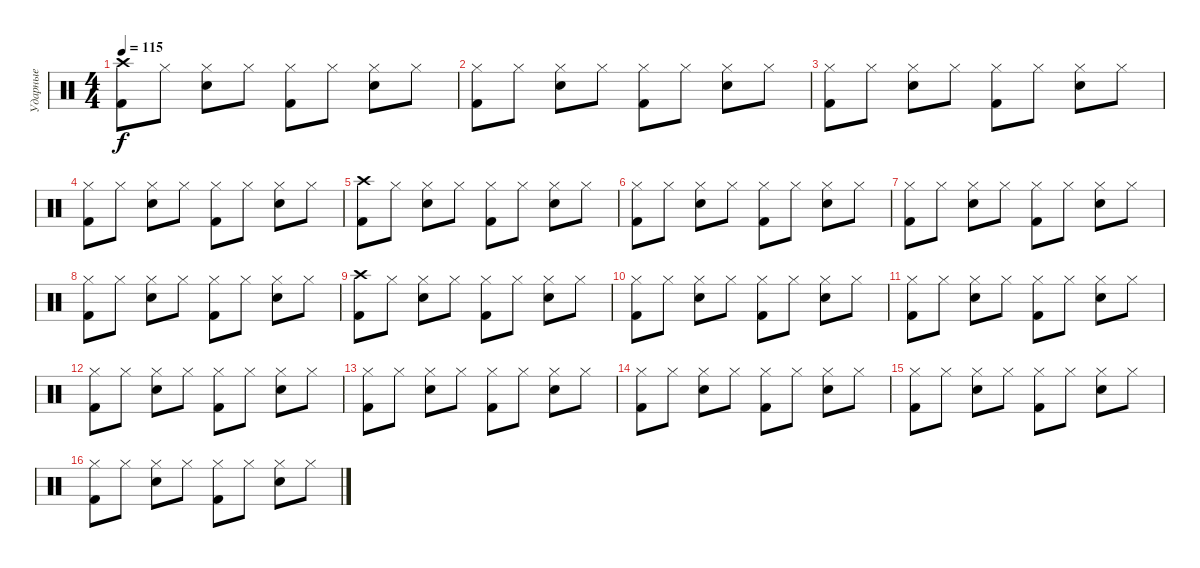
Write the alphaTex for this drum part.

\track ("Ударные" "Ударные") {instrument percussion}
\staff {score}
\articulation defaults
\ts (4 4)
\tempo 115
\clef neutral
\ks c
("Crash high (hit)" "Kick (hit) 2").8{dy f} "Hi-Hat (closed)".8 ("Hi-Hat (closed)" "Snare (hit) 2").8 "Hi-Hat (closed)".8 ("Hi-Hat (closed)" "Kick (hit) 2").8 "Hi-Hat (closed)".8 ("Hi-Hat (closed)" "Snare (hit) 2").8 "Hi-Hat (closed)".8 |
("Hi-Hat (closed)" "Kick (hit) 2").8 "Hi-Hat (closed)".8 ("Hi-Hat (closed)" "Snare (hit) 2").8 "Hi-Hat (closed)".8 ("Hi-Hat (closed)" "Kick (hit) 2").8 "Hi-Hat (closed)".8 ("Hi-Hat (closed)" "Snare (hit) 2").8 "Hi-Hat (closed)".8 |
("Hi-Hat (closed)" "Kick (hit) 2").8 "Hi-Hat (closed)".8 ("Hi-Hat (closed)" "Snare (hit) 2").8 "Hi-Hat (closed)".8 ("Hi-Hat (closed)" "Kick (hit) 2").8 "Hi-Hat (closed)".8 ("Hi-Hat (closed)" "Snare (hit) 2").8 "Hi-Hat (closed)".8 |
("Hi-Hat (closed)" "Kick (hit) 2").8 "Hi-Hat (closed)".8 ("Hi-Hat (closed)" "Snare (hit) 2").8 "Hi-Hat (closed)".8 ("Hi-Hat (closed)" "Kick (hit) 2").8 "Hi-Hat (closed)".8 ("Hi-Hat (closed)" "Snare (hit) 2").8 "Hi-Hat (closed)".8 |
("Crash high (hit)" "Kick (hit) 2").8 "Hi-Hat (closed)".8 ("Hi-Hat (closed)" "Snare (hit) 2").8 "Hi-Hat (closed)".8 ("Hi-Hat (closed)" "Kick (hit) 2").8 "Hi-Hat (closed)".8 ("Hi-Hat (closed)" "Snare (hit) 2").8 "Hi-Hat (closed)".8 |
("Hi-Hat (closed)" "Kick (hit) 2").8 "Hi-Hat (closed)".8 ("Hi-Hat (closed)" "Snare (hit) 2").8 "Hi-Hat (closed)".8 ("Hi-Hat (closed)" "Kick (hit) 2").8 "Hi-Hat (closed)".8 ("Hi-Hat (closed)" "Snare (hit) 2").8 "Hi-Hat (closed)".8 |
("Hi-Hat (closed)" "Kick (hit) 2").8 "Hi-Hat (closed)".8 ("Hi-Hat (closed)" "Snare (hit) 2").8 "Hi-Hat (closed)".8 ("Hi-Hat (closed)" "Kick (hit) 2").8 "Hi-Hat (closed)".8 ("Hi-Hat (closed)" "Snare (hit) 2").8 "Hi-Hat (closed)".8 |
("Hi-Hat (closed)" "Kick (hit) 2").8 "Hi-Hat (closed)".8 ("Hi-Hat (closed)" "Snare (hit) 2").8 "Hi-Hat (closed)".8 ("Hi-Hat (closed)" "Kick (hit) 2").8 "Hi-Hat (closed)".8 ("Hi-Hat (closed)" "Snare (hit) 2").8 "Hi-Hat (closed)".8 |
("Crash high (hit)" "Kick (hit) 2").8 "Hi-Hat (closed)".8 ("Hi-Hat (closed)" "Snare (hit) 2").8 "Hi-Hat (closed)".8 ("Hi-Hat (closed)" "Kick (hit) 2").8 "Hi-Hat (closed)".8 ("Hi-Hat (closed)" "Snare (hit) 2").8 "Hi-Hat (closed)".8 |
("Hi-Hat (closed)" "Kick (hit) 2").8 "Hi-Hat (closed)".8 ("Hi-Hat (closed)" "Snare (hit) 2").8 "Hi-Hat (closed)".8 ("Hi-Hat (closed)" "Kick (hit) 2").8 "Hi-Hat (closed)".8 ("Hi-Hat (closed)" "Snare (hit) 2").8 "Hi-Hat (closed)".8 |
("Hi-Hat (closed)" "Kick (hit) 2").8 "Hi-Hat (closed)".8 ("Hi-Hat (closed)" "Snare (hit) 2").8 "Hi-Hat (closed)".8 ("Hi-Hat (closed)" "Kick (hit) 2").8 "Hi-Hat (closed)".8 ("Hi-Hat (closed)" "Snare (hit) 2").8 "Hi-Hat (closed)".8 |
("Hi-Hat (closed)" "Kick (hit) 2").8 "Hi-Hat (closed)".8 ("Hi-Hat (closed)" "Snare (hit) 2").8 "Hi-Hat (closed)".8 ("Hi-Hat (closed)" "Kick (hit) 2").8 "Hi-Hat (closed)".8 ("Hi-Hat (closed)" "Snare (hit) 2").8 "Hi-Hat (closed)".8 |
("Hi-Hat (closed)" "Kick (hit) 2").8 "Hi-Hat (closed)".8 ("Hi-Hat (closed)" "Snare (hit) 2").8 "Hi-Hat (closed)".8 ("Hi-Hat (closed)" "Kick (hit) 2").8 "Hi-Hat (closed)".8 ("Hi-Hat (closed)" "Snare (hit) 2").8 "Hi-Hat (closed)".8 |
("Hi-Hat (closed)" "Kick (hit) 2").8 "Hi-Hat (closed)".8 ("Hi-Hat (closed)" "Snare (hit) 2").8 "Hi-Hat (closed)".8 ("Hi-Hat (closed)" "Kick (hit) 2").8 "Hi-Hat (closed)".8 ("Hi-Hat (closed)" "Snare (hit) 2").8 "Hi-Hat (closed)".8 |
("Hi-Hat (closed)" "Kick (hit) 2").8 "Hi-Hat (closed)".8 ("Hi-Hat (closed)" "Snare (hit) 2").8 "Hi-Hat (closed)".8 ("Hi-Hat (closed)" "Kick (hit) 2").8 "Hi-Hat (closed)".8 ("Hi-Hat (closed)" "Snare (hit) 2").8 "Hi-Hat (closed)".8 |
("Hi-Hat (closed)" "Kick (hit) 2").8 "Hi-Hat (closed)".8 ("Hi-Hat (closed)" "Snare (hit) 2").8 "Hi-Hat (closed)".8 ("Hi-Hat (closed)" "Kick (hit) 2").8 "Hi-Hat (closed)".8 ("Hi-Hat (closed)" "Snare (hit) 2").8 "Hi-Hat (closed)".8
